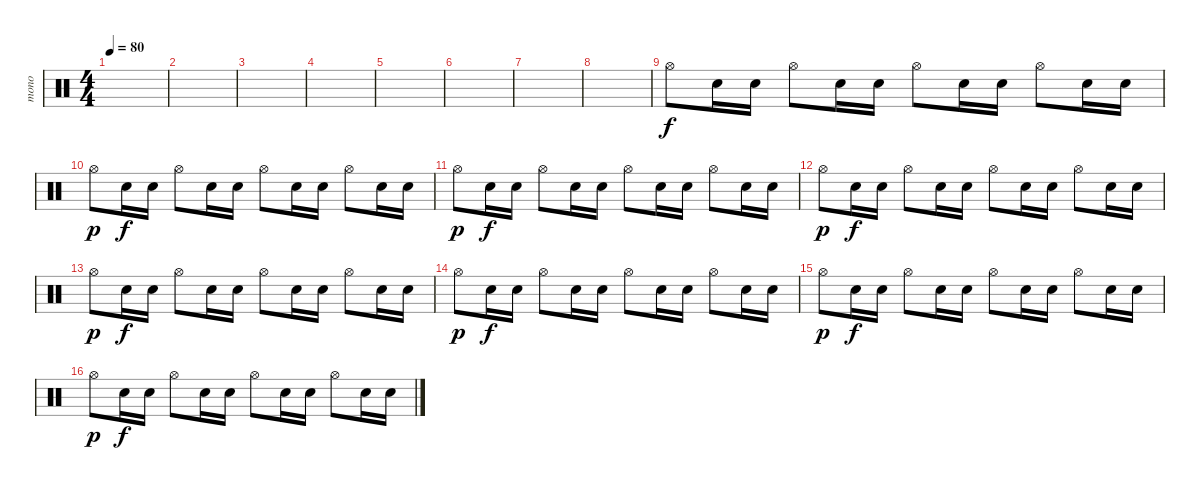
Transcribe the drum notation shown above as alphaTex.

\track ("mono" "mono") {instrument percussion}
\staff {score}
\articulation defaults
\ts (4 4)
\tempo 80
\clef neutral
\ks c
|
|
|
|
|
|
|
|
"Hi-Hat (open)".8 "Snare (hit) 2".16{dy f} "Snare (hit) 2".16 "Hi-Hat (open)".8 "Snare (hit) 2".16 "Snare (hit) 2".16 "Hi-Hat (open)".8 "Snare (hit) 2".16 "Snare (hit) 2".16 "Hi-Hat (open)".8 "Snare (hit) 2".16 "Snare (hit) 2".16 |
"Hi-Hat (open)".8{dy p} "Snare (hit) 2".16{dy f} "Snare (hit) 2".16 "Hi-Hat (open)".8 "Snare (hit) 2".16 "Snare (hit) 2".16 "Hi-Hat (open)".8 "Snare (hit) 2".16 "Snare (hit) 2".16 "Hi-Hat (open)".8 "Snare (hit) 2".16 "Snare (hit) 2".16 |
"Hi-Hat (open)".8{dy p} "Snare (hit) 2".16{dy f} "Snare (hit) 2".16 "Hi-Hat (open)".8 "Snare (hit) 2".16 "Snare (hit) 2".16 "Hi-Hat (open)".8 "Snare (hit) 2".16 "Snare (hit) 2".16 "Hi-Hat (open)".8 "Snare (hit) 2".16 "Snare (hit) 2".16 |
"Hi-Hat (open)".8{dy p} "Snare (hit) 2".16{dy f} "Snare (hit) 2".16 "Hi-Hat (open)".8 "Snare (hit) 2".16 "Snare (hit) 2".16 "Hi-Hat (open)".8 "Snare (hit) 2".16 "Snare (hit) 2".16 "Hi-Hat (open)".8 "Snare (hit) 2".16 "Snare (hit) 2".16 |
"Hi-Hat (open)".8{dy p} "Snare (hit) 2".16{dy f} "Snare (hit) 2".16 "Hi-Hat (open)".8 "Snare (hit) 2".16 "Snare (hit) 2".16 "Hi-Hat (open)".8 "Snare (hit) 2".16 "Snare (hit) 2".16 "Hi-Hat (open)".8 "Snare (hit) 2".16 "Snare (hit) 2".16 |
"Hi-Hat (open)".8{dy p} "Snare (hit) 2".16{dy f} "Snare (hit) 2".16 "Hi-Hat (open)".8 "Snare (hit) 2".16 "Snare (hit) 2".16 "Hi-Hat (open)".8 "Snare (hit) 2".16 "Snare (hit) 2".16 "Hi-Hat (open)".8 "Snare (hit) 2".16 "Snare (hit) 2".16 |
"Hi-Hat (open)".8{dy p} "Snare (hit) 2".16{dy f} "Snare (hit) 2".16 "Hi-Hat (open)".8 "Snare (hit) 2".16 "Snare (hit) 2".16 "Hi-Hat (open)".8 "Snare (hit) 2".16 "Snare (hit) 2".16 "Hi-Hat (open)".8 "Snare (hit) 2".16 "Snare (hit) 2".16 |
"Hi-Hat (open)".8{dy p} "Snare (hit) 2".16{dy f} "Snare (hit) 2".16 "Hi-Hat (open)".8 "Snare (hit) 2".16 "Snare (hit) 2".16 "Hi-Hat (open)".8 "Snare (hit) 2".16 "Snare (hit) 2".16 "Hi-Hat (open)".8 "Snare (hit) 2".16 "Snare (hit) 2".16
